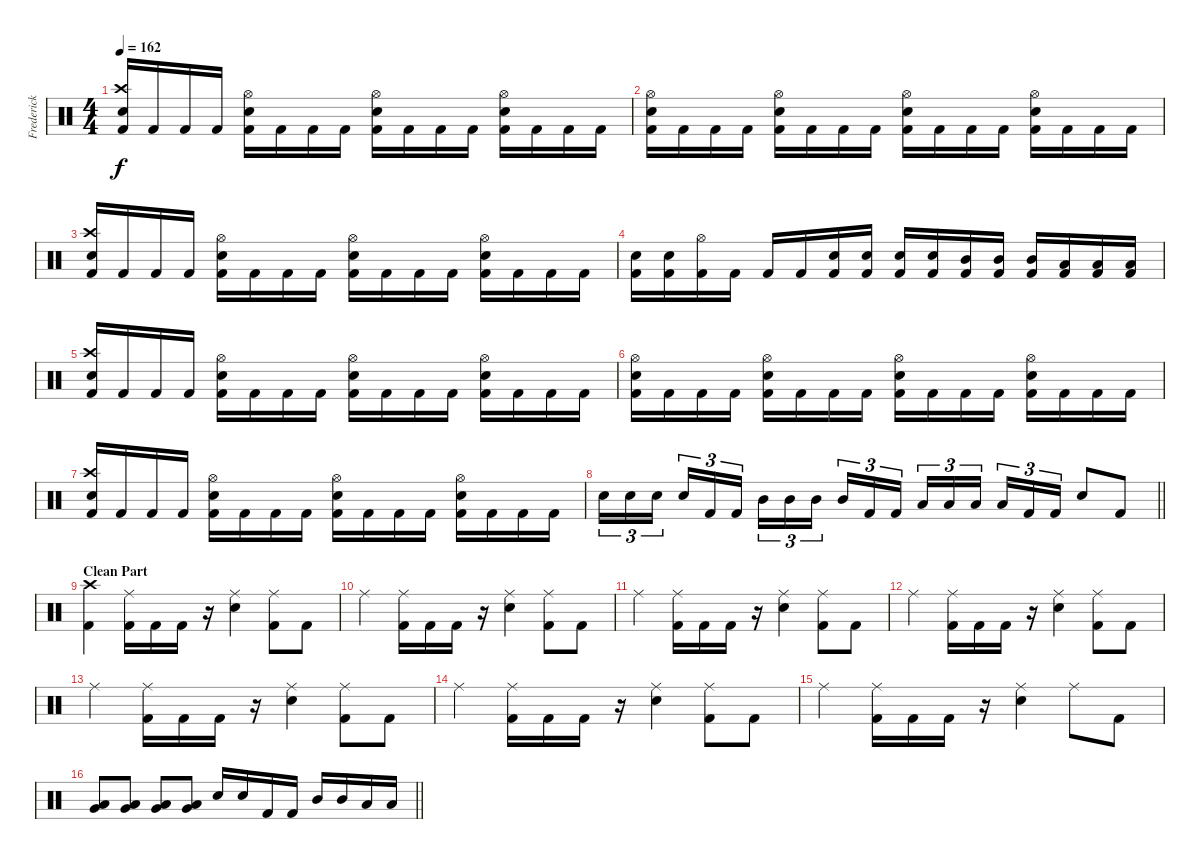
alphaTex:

\track ("Frederick Ehmke" "Frederick ") {instrument percussion}
\staff {score}
\articulation defaults
\ts (4 4)
\tempo 162
\clef neutral
\ks c
("Electric Snare (hit)" "Crash high (hit)" "Kick (hit) 2").16{dy f} "Kick (hit) 2".16 "Kick (hit) 2".16 "Kick (hit) 2".16 ("Electric Snare (hit)" "Hi-Hat (open)" "Kick (hit) 2").16 "Kick (hit) 2".16 "Kick (hit) 2".16 "Kick (hit) 2".16 ("Electric Snare (hit)" "Hi-Hat (open)" "Kick (hit) 2").16 "Kick (hit) 2".16 "Kick (hit) 2".16 "Kick (hit) 2".16 ("Electric Snare (hit)" "Hi-Hat (open)" "Kick (hit) 2").16 "Kick (hit) 2".16 "Kick (hit) 2".16 "Kick (hit) 2".16 |
("Electric Snare (hit)" "Hi-Hat (open)" "Kick (hit) 2").16 "Kick (hit) 2".16 "Kick (hit) 2".16 "Kick (hit) 2".16 ("Electric Snare (hit)" "Hi-Hat (open)" "Kick (hit) 2").16 "Kick (hit) 2".16 "Kick (hit) 2".16 "Kick (hit) 2".16 ("Electric Snare (hit)" "Hi-Hat (open)" "Kick (hit) 2").16 "Kick (hit) 2".16 "Kick (hit) 2".16 "Kick (hit) 2".16 ("Electric Snare (hit)" "Hi-Hat (open)" "Kick (hit) 2").16 "Kick (hit) 2".16 "Kick (hit) 2".16 "Kick (hit) 2".16 |
("Electric Snare (hit)" "Crash high (hit)" "Kick (hit) 2").16 "Kick (hit) 2".16 "Kick (hit) 2".16 "Kick (hit) 2".16 ("Electric Snare (hit)" "Hi-Hat (open)" "Kick (hit) 2").16 "Kick (hit) 2".16 "Kick (hit) 2".16 "Kick (hit) 2".16 ("Electric Snare (hit)" "Hi-Hat (open)" "Kick (hit) 2").16 "Kick (hit) 2".16 "Kick (hit) 2".16 "Kick (hit) 2".16 ("Electric Snare (hit)" "Hi-Hat (open)" "Kick (hit) 2").16 "Kick (hit) 2".16 "Kick (hit) 2".16 "Kick (hit) 2".16 |
("Electric Snare (hit)" "Kick (hit) 2").16 ("Electric Snare (hit)" "Kick (hit) 2").16 ("Hi-Hat (open)" "Kick (hit) 2").16 "Kick (hit) 2".16 "Kick (hit) 2".16 "Kick (hit) 2".16 ("Electric Snare (hit)" "Kick (hit) 2").16 ("Electric Snare (hit)" "Kick (hit) 2").16 ("Electric Snare (hit)" "Kick (hit) 2").16 ("Electric Snare (hit)" "Kick (hit) 2").16 ("Mid Tom (hit)" "Kick (hit) 2").16 ("Mid Tom (hit)" "Kick (hit) 2").16 ("Mid Tom (hit)" "Kick (hit) 2").16 ("Low Tom (hit)" "Kick (hit) 2").16 ("Low Tom (hit)" "Kick (hit) 2").16 ("Low Tom (hit)" "Kick (hit) 2").16 |
("Electric Snare (hit)" "Crash high (hit)" "Kick (hit) 2").16 "Kick (hit) 2".16 "Kick (hit) 2".16 "Kick (hit) 2".16 ("Electric Snare (hit)" "Hi-Hat (open)" "Kick (hit) 2").16 "Kick (hit) 2".16 "Kick (hit) 2".16 "Kick (hit) 2".16 ("Electric Snare (hit)" "Hi-Hat (open)" "Kick (hit) 2").16 "Kick (hit) 2".16 "Kick (hit) 2".16 "Kick (hit) 2".16 ("Electric Snare (hit)" "Hi-Hat (open)" "Kick (hit) 2").16 "Kick (hit) 2".16 "Kick (hit) 2".16 "Kick (hit) 2".16 |
("Electric Snare (hit)" "Hi-Hat (open)" "Kick (hit) 2").16 "Kick (hit) 2".16 "Kick (hit) 2".16 "Kick (hit) 2".16 ("Electric Snare (hit)" "Hi-Hat (open)" "Kick (hit) 2").16 "Kick (hit) 2".16 "Kick (hit) 2".16 "Kick (hit) 2".16 ("Electric Snare (hit)" "Hi-Hat (open)" "Kick (hit) 2").16 "Kick (hit) 2".16 "Kick (hit) 2".16 "Kick (hit) 2".16 ("Electric Snare (hit)" "Hi-Hat (open)" "Kick (hit) 2").16 "Kick (hit) 2".16 "Kick (hit) 2".16 "Kick (hit) 2".16 |
("Electric Snare (hit)" "Crash high (hit)" "Kick (hit) 2").16 "Kick (hit) 2".16 "Kick (hit) 2".16 "Kick (hit) 2".16 ("Electric Snare (hit)" "Hi-Hat (open)" "Kick (hit) 2").16 "Kick (hit) 2".16 "Kick (hit) 2".16 "Kick (hit) 2".16 ("Electric Snare (hit)" "Hi-Hat (open)" "Kick (hit) 2").16 "Kick (hit) 2".16 "Kick (hit) 2".16 "Kick (hit) 2".16 ("Electric Snare (hit)" "Hi-Hat (open)" "Kick (hit) 2").16 "Kick (hit) 2".16 "Kick (hit) 2".16 "Kick (hit) 2".16 |
\barLineRight lightlight "Electric Snare (hit)".16{tu (3 2)} "Electric Snare (hit)".16{tu (3 2)} "Electric Snare (hit)".16{tu (3 2) beam splitsecondary} "Electric Snare (hit)".16{tu (3 2)} "Kick (hit) 2".16{tu (3 2)} "Kick (hit) 2".16{tu (3 2)} "Mid Tom (hit)".16{tu (3 2)} "Mid Tom (hit)".16{tu (3 2)} "Mid Tom (hit)".16{tu (3 2) beam splitsecondary} "Mid Tom (hit)".16{tu (3 2)} "Kick (hit) 2".16{tu (3 2)} "Kick (hit) 2".16{tu (3 2)} "Low Tom (hit)".16{tu (3 2)} "Low Tom (hit)".16{tu (3 2)} "Low Tom (hit)".16{tu (3 2) beam splitsecondary} "Low Tom (hit)".16{tu (3 2)} "Kick (hit) 2".16{tu (3 2)} "Kick (hit) 2".16{tu (3 2)} "Electric Snare (hit)".8 "Kick (hit) 2".8
|
\section ("" "Clean Part")
("Crash high (hit)" "Kick (hit) 2").4 ("Ride (middle)" "Kick (hit) 2").16 "Kick (hit) 2".16 "Kick (hit) 2".16 r.16 ("Electric Snare (hit)" "Ride (middle)").4 ("Ride (middle)" "Kick (hit) 2").8 "Kick (hit) 2".8 |
"Ride (middle)".4 ("Ride (middle)" "Kick (hit) 2").16 "Kick (hit) 2".16 "Kick (hit) 2".16 r.16 ("Electric Snare (hit)" "Ride (middle)").4 ("Ride (middle)" "Kick (hit) 2").8 "Kick (hit) 2".8 |
"Ride (middle)".4 ("Ride (middle)" "Kick (hit) 2").16 "Kick (hit) 2".16 "Kick (hit) 2".16 r.16 ("Electric Snare (hit)" "Ride (middle)").4 ("Ride (middle)" "Kick (hit) 2").8 "Kick (hit) 2".8 |
"Ride (middle)".4 ("Ride (middle)" "Kick (hit) 2").16 "Kick (hit) 2".16 "Kick (hit) 2".16 r.16 ("Electric Snare (hit)" "Ride (middle)").4 ("Ride (middle)" "Kick (hit) 2").8 "Kick (hit) 2".8 |
"Ride (middle)".4 ("Ride (middle)" "Kick (hit) 2").16 "Kick (hit) 2".16 "Kick (hit) 2".16 r.16 ("Electric Snare (hit)" "Ride (middle)").4 ("Ride (middle)" "Kick (hit) 2").8 "Kick (hit) 2".8 |
"Ride (middle)".4 ("Ride (middle)" "Kick (hit) 2").16 "Kick (hit) 2".16 "Kick (hit) 2".16 r.16 ("Electric Snare (hit)" "Ride (middle)").4 ("Ride (middle)" "Kick (hit) 2").8 "Kick (hit) 2".8 |
"Ride (middle)".4 ("Ride (middle)" "Kick (hit) 2").16 "Kick (hit) 2".16 "Kick (hit) 2".16 r.16 ("Electric Snare (hit)" "Ride (middle)").4 "Ride (middle)".8 "Kick (hit) 2".8 |
\barLineRight lightlight
("Very Low Tom (hit)" "Low Floor Tom (hit)").8 ("Very Low Tom (hit)" "Low Floor Tom (hit)").8 ("Very Low Tom (hit)" "Low Floor Tom (hit)").8 ("Very Low Tom (hit)" "Low Floor Tom (hit)").8 "Electric Snare (hit)".16 "Electric Snare (hit)".16 "Kick (hit) 2".16 "Kick (hit) 2".16 "Mid Tom (hit)".16 "Mid Tom (hit)".16 "Low Tom (hit)".16 "Low Tom (hit)".16
